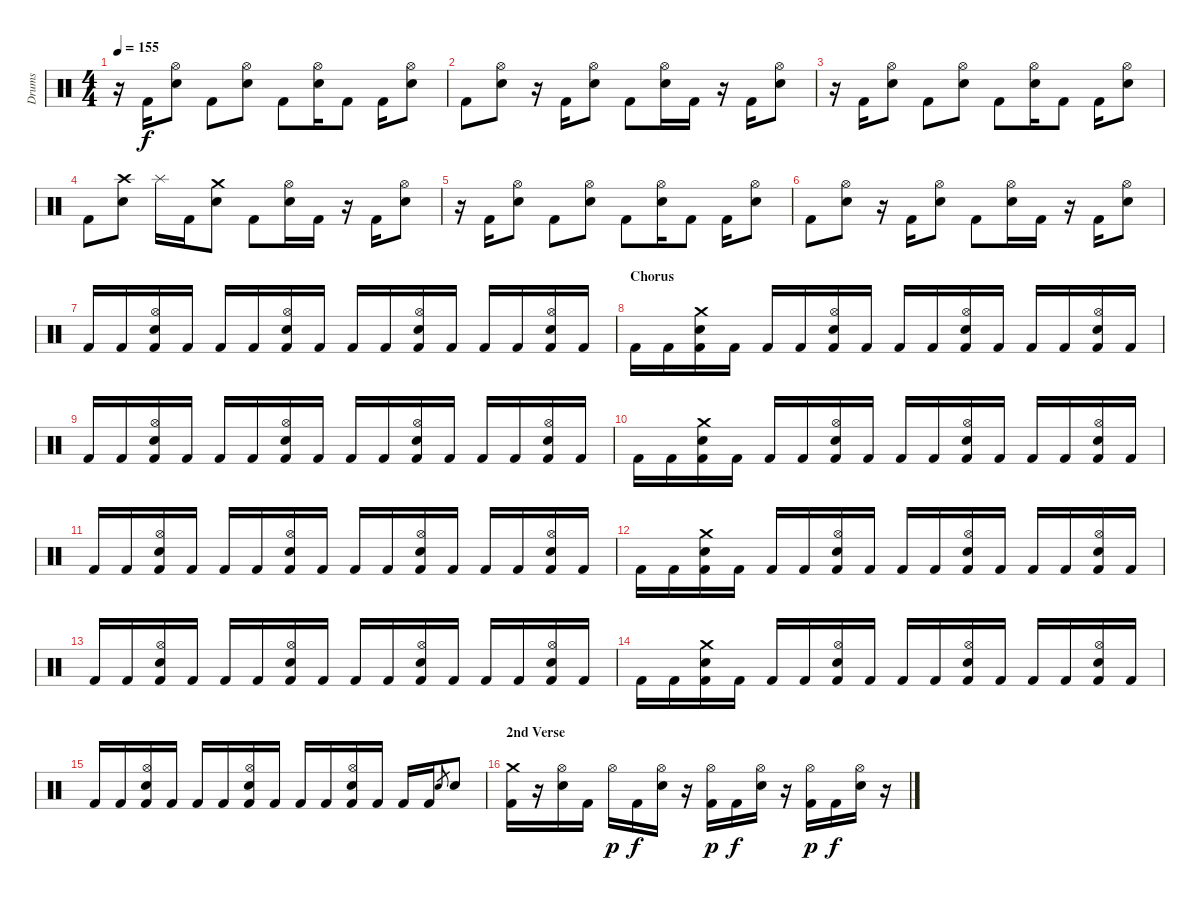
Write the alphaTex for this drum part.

\track ("Drums" "Drums") {instrument percussion}
\staff {score}
\articulation defaults
\ts (4 4)
\tempo 155
\clef neutral
\ks c
r.16{dy f} "Kick (hit) 2".16 ("Hi-Hat (open)" "Snare (hit) 2").8 "Kick (hit) 2".8 ("Hi-Hat (open)" "Snare (hit) 2").8 "Kick (hit) 2".8 ("Hi-Hat (open)" "Snare (hit) 2").16 "Kick (hit) 2".8 "Kick (hit) 2".16 ("Hi-Hat (open)" "Snare (hit) 2").8 |
"Kick (hit) 2".8 ("Hi-Hat (open)" "Snare (hit) 2").8 r.16 "Kick (hit) 2".16 ("Hi-Hat (open)" "Snare (hit) 2").8 "Kick (hit) 2".8 ("Hi-Hat (open)" "Snare (hit) 2").16 "Kick (hit) 2".16 r.16 "Kick (hit) 2".16 ("Hi-Hat (open)" "Snare (hit) 2").8 |
r.16 "Kick (hit) 2".16 ("Hi-Hat (open)" "Snare (hit) 2").8 "Kick (hit) 2".8 ("Hi-Hat (open)" "Snare (hit) 2").8 "Kick (hit) 2".8 ("Hi-Hat (open)" "Snare (hit) 2").16 "Kick (hit) 2".8 "Kick (hit) 2".16 ("Hi-Hat (open)" "Snare (hit) 2").8 |
"Kick (hit) 2".8 ("Crash high (hit)" "Snare (hit) 2").8 "Splash (hit)".16 "Kick (hit) 2".16 ("Crash medium (hit)" "Snare (hit) 2").8 "Kick (hit) 2".8 ("Hi-Hat (open)" "Snare (hit) 2").16 "Kick (hit) 2".16 r.16 "Kick (hit) 2".16 ("Hi-Hat (open)" "Snare (hit) 2").8 |
r.16 "Kick (hit) 2".16 ("Hi-Hat (open)" "Snare (hit) 2").8 "Kick (hit) 2".8 ("Hi-Hat (open)" "Snare (hit) 2").8 "Kick (hit) 2".8 ("Hi-Hat (open)" "Snare (hit) 2").16 "Kick (hit) 2".8 "Kick (hit) 2".16 ("Hi-Hat (open)" "Snare (hit) 2").8 |
"Kick (hit) 2".8 ("Hi-Hat (open)" "Snare (hit) 2").8 r.16 "Kick (hit) 2".16 ("Hi-Hat (open)" "Snare (hit) 2").8 "Kick (hit) 2".8 ("Hi-Hat (open)" "Snare (hit) 2").16 "Kick (hit) 2".16 r.16 "Kick (hit) 2".16 ("Hi-Hat (open)" "Snare (hit) 2").8 |
"Kick (hit) 2".16 "Kick (hit) 2".16 ("Hi-Hat (open)" "Snare (hit) 2" "Kick (hit) 2").16 "Kick (hit) 2".16 "Kick (hit) 2".16 "Kick (hit) 2".16 ("Hi-Hat (open)" "Snare (hit) 2" "Kick (hit) 2").16 "Kick (hit) 2".16 "Kick (hit) 2".16 "Kick (hit) 2".16 ("Hi-Hat (open)" "Snare (hit) 2" "Kick (hit) 2").16 "Kick (hit) 2".16 "Kick (hit) 2".16 "Kick (hit) 2".16 ("Hi-Hat (open)" "Snare (hit) 2" "Kick (hit) 2").16 "Kick (hit) 2".16 |
\section ("" "Chorus")
"Kick (hit) 2".16 "Kick (hit) 2".16 ("Crash medium (hit)" "Snare (hit) 2" "Kick (hit) 2").16 "Kick (hit) 2".16 "Kick (hit) 2".16 "Kick (hit) 2".16 ("Hi-Hat (open)" "Snare (hit) 2" "Kick (hit) 2").16 "Kick (hit) 2".16 "Kick (hit) 2".16 "Kick (hit) 2".16 ("Hi-Hat (open)" "Snare (hit) 2" "Kick (hit) 2").16 "Kick (hit) 2".16 "Kick (hit) 2".16 "Kick (hit) 2".16 ("Hi-Hat (open)" "Snare (hit) 2" "Kick (hit) 2").16 "Kick (hit) 2".16 |
"Kick (hit) 2".16 "Kick (hit) 2".16 ("Hi-Hat (open)" "Snare (hit) 2" "Kick (hit) 2").16 "Kick (hit) 2".16 "Kick (hit) 2".16 "Kick (hit) 2".16 ("Hi-Hat (open)" "Snare (hit) 2" "Kick (hit) 2").16 "Kick (hit) 2".16 "Kick (hit) 2".16 "Kick (hit) 2".16 ("Hi-Hat (open)" "Snare (hit) 2" "Kick (hit) 2").16 "Kick (hit) 2".16 "Kick (hit) 2".16 "Kick (hit) 2".16 ("Hi-Hat (open)" "Snare (hit) 2" "Kick (hit) 2").16 "Kick (hit) 2".16 |
"Kick (hit) 2".16 "Kick (hit) 2".16 ("Crash medium (hit)" "Snare (hit) 2" "Kick (hit) 2").16 "Kick (hit) 2".16 "Kick (hit) 2".16 "Kick (hit) 2".16 ("Hi-Hat (open)" "Snare (hit) 2" "Kick (hit) 2").16 "Kick (hit) 2".16 "Kick (hit) 2".16 "Kick (hit) 2".16 ("Hi-Hat (open)" "Snare (hit) 2" "Kick (hit) 2").16 "Kick (hit) 2".16 "Kick (hit) 2".16 "Kick (hit) 2".16 ("Hi-Hat (open)" "Snare (hit) 2" "Kick (hit) 2").16 "Kick (hit) 2".16 |
"Kick (hit) 2".16 "Kick (hit) 2".16 ("Hi-Hat (open)" "Snare (hit) 2" "Kick (hit) 2").16 "Kick (hit) 2".16 "Kick (hit) 2".16 "Kick (hit) 2".16 ("Hi-Hat (open)" "Snare (hit) 2" "Kick (hit) 2").16 "Kick (hit) 2".16 "Kick (hit) 2".16 "Kick (hit) 2".16 ("Hi-Hat (open)" "Snare (hit) 2" "Kick (hit) 2").16 "Kick (hit) 2".16 "Kick (hit) 2".16 "Kick (hit) 2".16 ("Hi-Hat (open)" "Snare (hit) 2" "Kick (hit) 2").16 "Kick (hit) 2".16 |
"Kick (hit) 2".16 "Kick (hit) 2".16 ("Crash medium (hit)" "Snare (hit) 2" "Kick (hit) 2").16 "Kick (hit) 2".16 "Kick (hit) 2".16 "Kick (hit) 2".16 ("Hi-Hat (open)" "Snare (hit) 2" "Kick (hit) 2").16 "Kick (hit) 2".16 "Kick (hit) 2".16 "Kick (hit) 2".16 ("Hi-Hat (open)" "Snare (hit) 2" "Kick (hit) 2").16 "Kick (hit) 2".16 "Kick (hit) 2".16 "Kick (hit) 2".16 ("Hi-Hat (open)" "Snare (hit) 2" "Kick (hit) 2").16 "Kick (hit) 2".16 |
"Kick (hit) 2".16 "Kick (hit) 2".16 ("Hi-Hat (open)" "Snare (hit) 2" "Kick (hit) 2").16 "Kick (hit) 2".16 "Kick (hit) 2".16 "Kick (hit) 2".16 ("Hi-Hat (open)" "Snare (hit) 2" "Kick (hit) 2").16 "Kick (hit) 2".16 "Kick (hit) 2".16 "Kick (hit) 2".16 ("Hi-Hat (open)" "Snare (hit) 2" "Kick (hit) 2").16 "Kick (hit) 2".16 "Kick (hit) 2".16 "Kick (hit) 2".16 ("Hi-Hat (open)" "Snare (hit) 2" "Kick (hit) 2").16 "Kick (hit) 2".16 |
"Kick (hit) 2".16 "Kick (hit) 2".16 ("Crash medium (hit)" "Snare (hit) 2" "Kick (hit) 2").16 "Kick (hit) 2".16 "Kick (hit) 2".16 "Kick (hit) 2".16 ("Hi-Hat (open)" "Snare (hit) 2" "Kick (hit) 2").16 "Kick (hit) 2".16 "Kick (hit) 2".16 "Kick (hit) 2".16 ("Hi-Hat (open)" "Snare (hit) 2" "Kick (hit) 2").16 "Kick (hit) 2".16 "Kick (hit) 2".16 "Kick (hit) 2".16 ("Hi-Hat (open)" "Snare (hit) 2" "Kick (hit) 2").16 "Kick (hit) 2".16 |
"Kick (hit) 2".16 "Kick (hit) 2".16 ("Hi-Hat (open)" "Snare (hit) 2" "Kick (hit) 2").16 "Kick (hit) 2".16 "Kick (hit) 2".16 "Kick (hit) 2".16 ("Hi-Hat (open)" "Snare (hit) 2" "Kick (hit) 2").16 "Kick (hit) 2".16 "Kick (hit) 2".16 "Kick (hit) 2".16 ("Hi-Hat (open)" "Snare (hit) 2" "Kick (hit) 2").16 "Kick (hit) 2".16 "Kick (hit) 2".16 "Kick (hit) 2".16 "Snare (hit) 2".8{gr} "Snare (hit) 2".8 |
\section ("" "2nd Verse")
("Crash medium (hit)" "Kick (hit) 2").16 r.16 ("Hi-Hat (open)" "Snare (hit) 2").16 "Kick (hit) 2".16 "Hi-Hat (open)".16{dy p} "Kick (hit) 2".16{dy f} ("Hi-Hat (open)" "Snare (hit) 2").16 r.16 ("Hi-Hat (open)" "Kick (hit) 2").16{dy p} "Kick (hit) 2".16{dy f} ("Hi-Hat (open)" "Snare (hit) 2").16 r.16 ("Hi-Hat (open)" "Kick (hit) 2").16{dy p} "Kick (hit) 2".16{dy f} ("Hi-Hat (open)" "Snare (hit) 2").16 r.16
